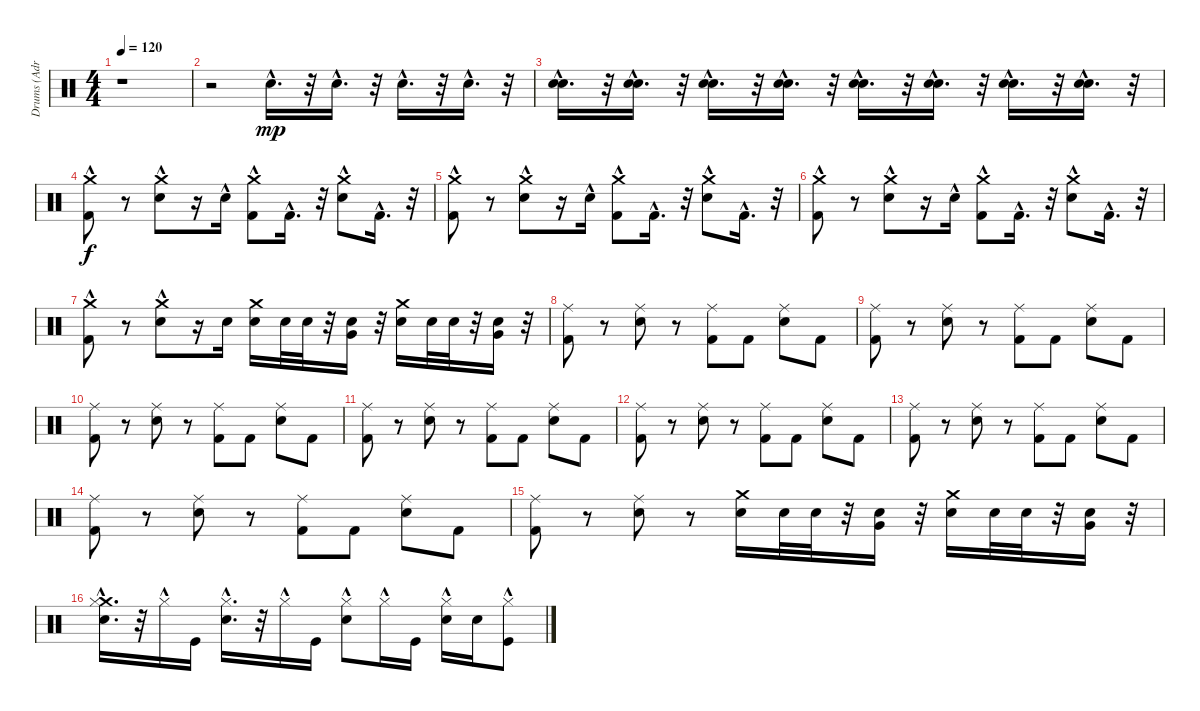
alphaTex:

\track ("Drums (Adrian Young)" "Drums (Adr") {instrument percussion}
\staff {score}
\articulation defaults
\ts (4 4)
\tempo 120
\clef neutral
\ks c
r.1{dy mp} |
r.2 "Electric Snare (hit)"{hac}.16{d} r.32 "Electric Snare (hit)"{hac}.16{d} r.32 "Electric Snare (hit)"{hac}.16{d} r.32 "Electric Snare (hit)"{hac}.16{d} r.32 |
("Snare (hit) 2"{hac} "Electric Snare (hit)"{hac}).16{d} r.32 ("Snare (hit) 2"{hac} "Electric Snare (hit)"{hac}).16{d} r.32 ("Snare (hit) 2"{hac} "Electric Snare (hit)"{hac}).16{d} r.32 ("Snare (hit) 2"{hac} "Electric Snare (hit)"{hac}).16{d} r.32 ("Snare (hit) 2"{hac} "Electric Snare (hit)"{hac}).16{d} r.32 ("Snare (hit) 2"{hac} "Electric Snare (hit)"{hac}).16{d} r.32 ("Snare (hit) 2"{hac} "Electric Snare (hit)"{hac}).16{d} r.32 ("Snare (hit) 2"{hac} "Electric Snare (hit)"{hac}).16{d} r.32 |
("Crash medium (hit)" "Kick (hit) 2"{hac}).8{dy f} r.8 ("Crash medium (hit)" "Snare (hit) 2"{hac}).8 r.16 "Snare (hit) 2"{hac}.16 ("Crash medium (hit)" "Kick (hit) 2"{hac}).8 "Kick (hit) 2"{hac}.16{d} r.32 ("Crash medium (hit)" "Snare (hit) 2"{hac}).8 "Kick (hit) 2"{hac}.16{d} r.32 |
("Crash medium (hit)" "Kick (hit) 2"{hac}).8 r.8 ("Crash medium (hit)" "Snare (hit) 2"{hac}).8 r.16 "Snare (hit) 2"{hac}.16 ("Crash medium (hit)" "Kick (hit) 2"{hac}).8 "Kick (hit) 2"{hac}.16{d} r.32 ("Crash medium (hit)" "Snare (hit) 2"{hac}).8 "Kick (hit) 2"{hac}.16{d} r.32 |
("Crash medium (hit)" "Kick (hit) 2"{hac}).8 r.8 ("Crash medium (hit)" "Snare (hit) 2"{hac}).8 r.16 "Snare (hit) 2"{hac}.16 ("Crash medium (hit)" "Kick (hit) 2"{hac}).8 "Kick (hit) 2"{hac}.16{d} r.32 ("Crash medium (hit)" "Snare (hit) 2"{hac}).8 "Kick (hit) 2"{hac}.16{d} r.32 |
("Crash medium (hit)" "Kick (hit) 2"{hac}).8 r.8 ("Crash medium (hit)" "Snare (hit) 2"{hac}).8 r.16 "Snare (hit) 2".16 ("Crash medium (hit)" "Snare (hit) 2").16 "Snare (hit) 2".32 "Snare (hit) 2".32 r.32 ("Snare (hit) 2" "Very Low Tom (hit)").16 r.32 ("Crash medium (hit)" "Snare (hit) 2").16 "Snare (hit) 2".32 "Snare (hit) 2".32 r.32 ("Snare (hit) 2" "Very Low Tom (hit)").16 r.32 |
("Kick (hit) 2" "Ride (middle)").8 r.8 ("Snare (hit) 2" "Ride (middle)").8 r.8 ("Kick (hit) 2" "Ride (middle)").8 "Kick (hit) 2".8 ("Snare (hit) 2" "Ride (middle)").8 "Kick (hit) 2".8 |
("Kick (hit) 2" "Ride (middle)").8 r.8 ("Snare (hit) 2" "Ride (middle)").8 r.8 ("Kick (hit) 2" "Ride (middle)").8 "Kick (hit) 2".8 ("Snare (hit) 2" "Ride (middle)").8 "Kick (hit) 2".8 |
("Kick (hit) 2" "Ride (middle)").8 r.8 ("Snare (hit) 2" "Ride (middle)").8 r.8 ("Kick (hit) 2" "Ride (middle)").8 "Kick (hit) 2".8 ("Snare (hit) 2" "Ride (middle)").8 "Kick (hit) 2".8 |
("Kick (hit) 2" "Ride (middle)").8 r.8 ("Snare (hit) 2" "Ride (middle)").8 r.8 ("Kick (hit) 2" "Ride (middle)").8 "Kick (hit) 2".8 ("Snare (hit) 2" "Ride (middle)").8 "Kick (hit) 2".8 |
("Kick (hit) 2" "Ride (middle)").8 r.8 ("Snare (hit) 2" "Ride (middle)").8 r.8 ("Kick (hit) 2" "Ride (middle)").8 "Kick (hit) 2".8 ("Snare (hit) 2" "Ride (middle)").8 "Kick (hit) 2".8 |
("Kick (hit) 2" "Ride (middle)").8 r.8 ("Snare (hit) 2" "Ride (middle)").8 r.8 ("Kick (hit) 2" "Ride (middle)").8 "Kick (hit) 2".8 ("Snare (hit) 2" "Ride (middle)").8 "Kick (hit) 2".8 |
("Kick (hit) 2" "Ride (middle)").8 r.8 ("Snare (hit) 2" "Ride (middle)").8 r.8 ("Kick (hit) 2" "Ride (middle)").8 "Kick (hit) 2".8 ("Snare (hit) 2" "Ride (middle)").8 "Kick (hit) 2".8 |
("Kick (hit) 2" "Ride (middle)").8 r.8 ("Snare (hit) 2" "Ride (middle)").8 r.8 ("Crash medium (hit)" "Snare (hit) 2").16 "Snare (hit) 2".32 "Snare (hit) 2".32 r.32 ("Snare (hit) 2" "Very Low Tom (hit)").16 r.32 ("Crash medium (hit)" "Snare (hit) 2").16 "Snare (hit) 2".32 "Snare (hit) 2".32 r.32 ("Snare (hit) 2" "Very Low Tom (hit)").16 r.32 |
("Crash medium (hit)"{hac} "Hi-Hat (closed)"{hac} "Electric Snare (hit)"{hac}).16{d} r.32 "Hi-Hat (closed)"{hac}.16 "Kick (hit)".16 ("Hi-Hat (closed)"{hac} "Electric Snare (hit)"{hac}).16{d} r.32 "Hi-Hat (closed)"{hac}.16 "Kick (hit)".16 ("Hi-Hat (closed)"{hac} "Electric Snare (hit)").8 "Hi-Hat (closed)"{hac}.16 "Kick (hit)".16 ("Hi-Hat (closed)"{hac} "Electric Snare (hit)").16 "Electric Snare (hit)".16 ("Hi-Hat (closed)"{hac} "Kick (hit)").8
